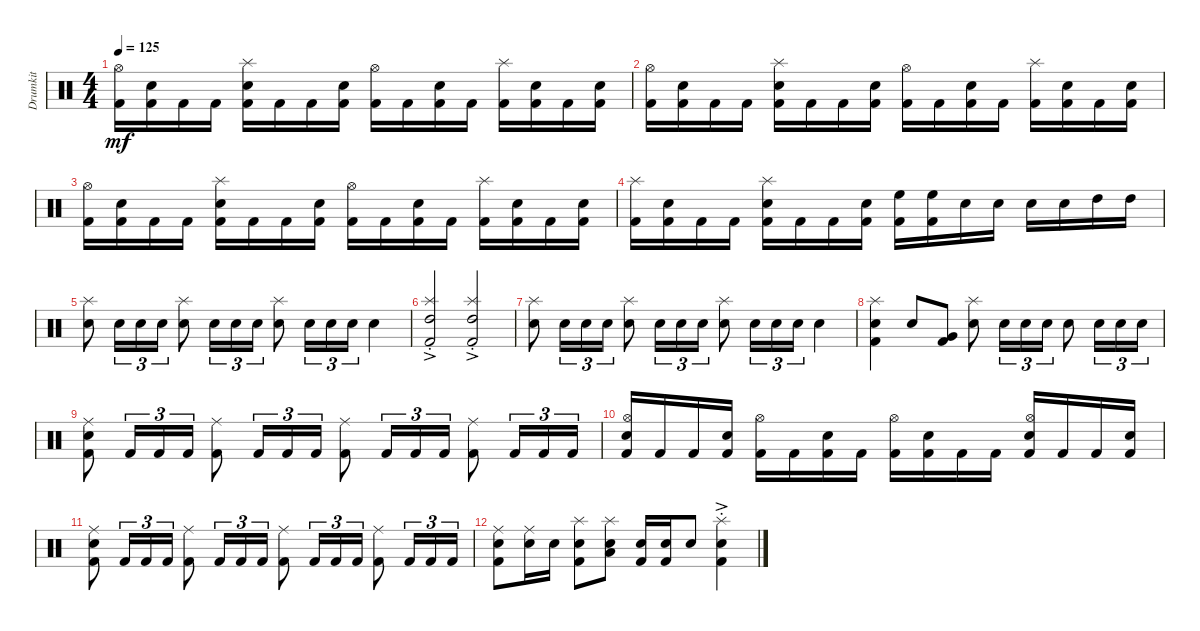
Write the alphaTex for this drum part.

\track ("Drumkit" "Drumkit") {instrument percussion}
\staff {score}
\articulation defaults
\ts (4 4)
\tempo 125
\clef neutral
\ks c
("Kick (hit) 2" "Hi-Hat (open)").16{dy mf} ("Kick (hit) 2" "Snare (hit) 2").16 "Kick (hit) 2".16 "Kick (hit) 2".16 ("Kick (hit) 2" "Snare (hit) 2" "Splash (hit)").16 "Kick (hit) 2".16 "Kick (hit) 2".16 ("Kick (hit) 2" "Snare (hit) 2").16 ("Kick (hit) 2" "Hi-Hat (open)").16 "Kick (hit) 2".16 ("Kick (hit) 2" "Snare (hit) 2").16 "Kick (hit) 2".16 ("Kick (hit) 2" "Splash (hit)").16 ("Kick (hit) 2" "Snare (hit) 2").16 "Kick (hit) 2".16 ("Kick (hit) 2" "Snare (hit) 2").16 |
("Kick (hit) 2" "Hi-Hat (open)").16 ("Kick (hit) 2" "Snare (hit) 2").16 "Kick (hit) 2".16 "Kick (hit) 2".16 ("Kick (hit) 2" "Snare (hit) 2" "Splash (hit)").16 "Kick (hit) 2".16 "Kick (hit) 2".16 ("Kick (hit) 2" "Snare (hit) 2").16 ("Kick (hit) 2" "Hi-Hat (open)").16 "Kick (hit) 2".16 ("Kick (hit) 2" "Snare (hit) 2").16 "Kick (hit) 2".16 ("Kick (hit) 2" "Splash (hit)").16 ("Kick (hit) 2" "Snare (hit) 2").16 "Kick (hit) 2".16 ("Kick (hit) 2" "Snare (hit) 2").16 |
("Kick (hit) 2" "Hi-Hat (open)").16 ("Kick (hit) 2" "Snare (hit) 2").16 "Kick (hit) 2".16 "Kick (hit) 2".16 ("Kick (hit) 2" "Snare (hit) 2" "Splash (hit)").16 "Kick (hit) 2".16 "Kick (hit) 2".16 ("Kick (hit) 2" "Snare (hit) 2").16 ("Kick (hit) 2" "Hi-Hat (open)").16 "Kick (hit) 2".16 ("Kick (hit) 2" "Snare (hit) 2").16 "Kick (hit) 2".16 ("Kick (hit) 2" "Splash (hit)").16 ("Kick (hit) 2" "Snare (hit) 2").16 "Kick (hit) 2".16 ("Kick (hit) 2" "Snare (hit) 2").16 |
("Kick (hit) 2" "Splash (hit)").16 ("Kick (hit) 2" "Snare (hit) 2").16 "Kick (hit) 2".16 "Kick (hit) 2".16 ("Kick (hit) 2" "Snare (hit) 2" "Splash (hit)").16 "Kick (hit) 2".16 "Kick (hit) 2".16 ("Kick (hit) 2" "Snare (hit) 2").16 ("Kick (hit) 2" "High Floor Tom (hit)").16 ("Kick (hit) 2" "High Floor Tom (hit)").16 "Snare (hit) 2".16 "Snare (hit) 2".16 "Snare (hit) 2".16 "Snare (hit) 2".16 "High Tom (hit)".16 "High Tom (hit)".16 |
("Splash (hit)" "Snare (hit) 2").8 "Snare (hit) 2".16{tu (3 2)} "Snare (hit) 2".16{tu (3 2)} "Snare (hit) 2".16{tu (3 2)} ("Splash (hit)" "Snare (hit) 2").8 "Snare (hit) 2".16{tu (3 2)} "Snare (hit) 2".16{tu (3 2)} "Snare (hit) 2".16{tu (3 2)} ("Splash (hit)" "Snare (hit) 2").8 "Snare (hit) 2".16{tu (3 2)} "Snare (hit) 2".16{tu (3 2)} "Snare (hit) 2".16{tu (3 2)} "Snare (hit) 2".4 |
("Splash (hit)"{ac st} "High Tom (hit)" "Kick (hit) 2").2 ("Splash (hit)"{ac st} "High Tom (hit)" "Kick (hit) 2").2 |
("Splash (hit)" "Snare (hit) 2").8 "Snare (hit) 2".16{tu (3 2)} "Snare (hit) 2".16{tu (3 2)} "Snare (hit) 2".16{tu (3 2)} ("Splash (hit)" "Snare (hit) 2").8 "Snare (hit) 2".16{tu (3 2)} "Snare (hit) 2".16{tu (3 2)} "Snare (hit) 2".16{tu (3 2)} ("Splash (hit)" "Snare (hit) 2").8 "Snare (hit) 2".16{tu (3 2)} "Snare (hit) 2".16{tu (3 2)} "Snare (hit) 2".16{tu (3 2)} "Snare (hit) 2".4 |
("Kick (hit) 2" "Snare (hit) 2" "Splash (hit)").4 "Snare (hit) 2".8 ("Kick (hit) 2" "Very Low Tom (hit)").8 ("Snare (hit) 2" "Splash (hit)").8 "Snare (hit) 2".16{tu (3 2)} "Snare (hit) 2".16{tu (3 2)} "Snare (hit) 2".16{tu (3 2)} "Snare (hit) 2".8 "Snare (hit) 2".16{tu (3 2)} "Snare (hit) 2".16{tu (3 2)} "Snare (hit) 2".16{tu (3 2)} |
("Kick (hit) 2" "Snare (hit) 2" "Ride (middle)").8 "Kick (hit) 2".16{tu (3 2)} "Kick (hit) 2".16{tu (3 2)} "Kick (hit) 2".16{tu (3 2)} ("Kick (hit) 2" "Ride (middle)").8 "Kick (hit) 2".16{tu (3 2)} "Kick (hit) 2".16{tu (3 2)} "Kick (hit) 2".16{tu (3 2)} ("Kick (hit) 2" "Ride (middle)").8 "Kick (hit) 2".16{tu (3 2)} "Kick (hit) 2".16{tu (3 2)} "Kick (hit) 2".16{tu (3 2)} ("Kick (hit) 2" "Ride (middle)").8 "Kick (hit) 2".16{tu (3 2)} "Kick (hit) 2".16{tu (3 2)} "Kick (hit) 2".16{tu (3 2)} |
("Kick (hit) 2" "Hi-Hat (open)" "Snare (hit) 2").16 "Kick (hit) 2".16 "Kick (hit) 2".16 ("Kick (hit) 2" "Snare (hit) 2").16 ("Kick (hit) 2" "Hi-Hat (open)").16 "Kick (hit) 2".16 ("Kick (hit) 2" "Snare (hit) 2").16 "Kick (hit) 2".16 ("Kick (hit) 2" "Hi-Hat (open)").16 ("Kick (hit) 2" "Snare (hit) 2").16 "Kick (hit) 2".16 "Kick (hit) 2".16 ("Kick (hit) 2" "Hi-Hat (open)" "Snare (hit) 2").16 "Kick (hit) 2".16 "Kick (hit) 2".16 ("Kick (hit) 2" "Snare (hit) 2").16 |
("Kick (hit) 2" "Snare (hit) 2" "Ride (middle)").8 "Kick (hit) 2".16{tu (3 2)} "Kick (hit) 2".16{tu (3 2)} "Kick (hit) 2".16{tu (3 2)} ("Kick (hit) 2" "Ride (middle)").8 "Kick (hit) 2".16{tu (3 2)} "Kick (hit) 2".16{tu (3 2)} "Kick (hit) 2".16{tu (3 2)} ("Kick (hit) 2" "Ride (middle)").8 "Kick (hit) 2".16{tu (3 2)} "Kick (hit) 2".16{tu (3 2)} "Kick (hit) 2".16{tu (3 2)} ("Kick (hit) 2" "Ride (middle)").8 "Kick (hit) 2".16{tu (3 2)} "Kick (hit) 2".16{tu (3 2)} "Kick (hit) 2".16{tu (3 2)} |
("Kick (hit) 2" "Snare (hit) 2" "Ride (middle)").8 ("Snare (hit) 2" "Ride (middle)").16 "Snare (hit) 2".16 ("Snare (hit) 2" "Kick (hit) 2" "Splash (hit)").8 ("Snare (hit) 2" "Low Tom (hit)" "Splash (hit)").8 ("Snare (hit) 2" "Kick (hit) 2").16 ("Snare (hit) 2" "Kick (hit) 2").16 "Snare (hit) 2".8 ("Kick (hit) 2"{ac st} "Snare (hit) 2"{ac st} "Splash (hit)").4
